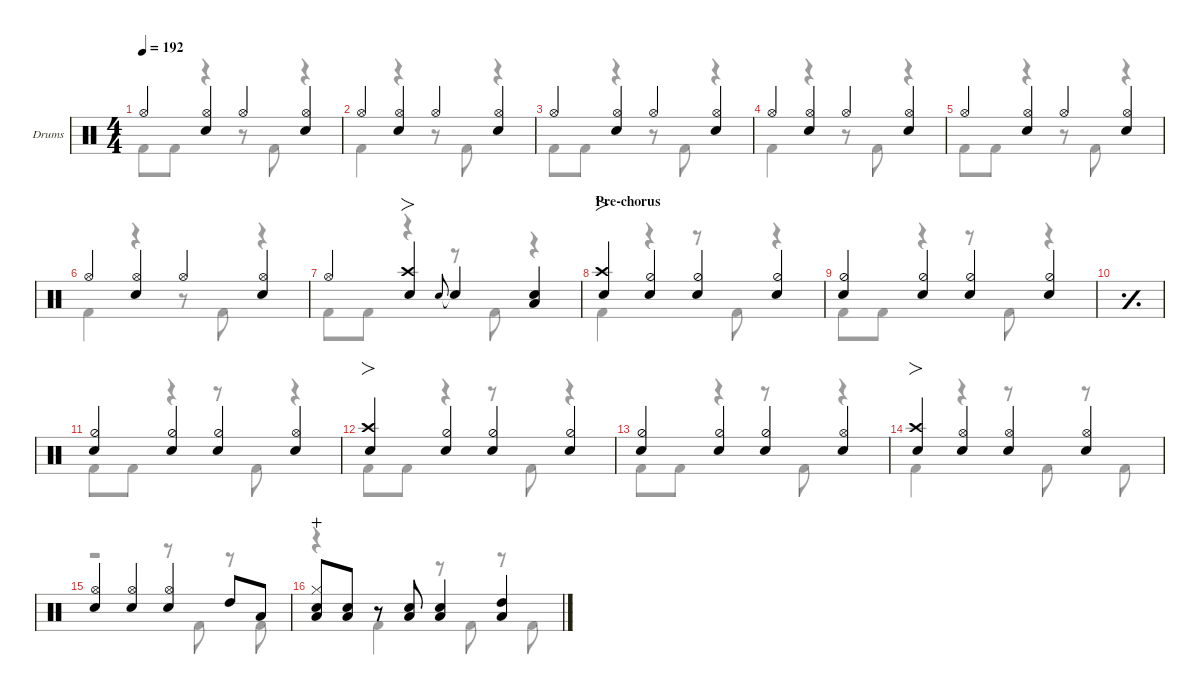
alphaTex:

\defaultSystemsLayout 4
\hideDynamics
\bracketExtendMode nobrackets
\firstSystemTrackNameOrientation horizontal
\track ("Drums" "Drums") {defaultSystemsLayout 4 instrument percussion}
\staff {score}
\articulation defaults
\voice
\ts (4 4)
\tempo 192
\clef neutral
\scale
0.243987
\ks c "Hi-Hat (open)".4{dy f beam Up}
("Hi-Hat (open)" "Snare (hit) 2").4{beam Up} "Hi-Hat (open)".4{beam Up} ("Hi-Hat (open)" "Snare (hit) 2").4{beam Up} |
\scale
0.241618 "Hi-Hat (open)".4{beam Up} ("Hi-Hat (open)" "Snare (hit) 2").4{beam Up} "Hi-Hat (open)".4{beam Up} ("Hi-Hat (open)" "Snare (hit) 2").4{beam Up} |
\scale
0.247776 "Hi-Hat (open)".4{beam Up} ("Hi-Hat (open)" "Snare (hit) 2").4{beam Up} "Hi-Hat (open)".4{beam Up} ("Hi-Hat (open)" "Snare (hit) 2").4{beam Up} |
\scale
0.266618 "Hi-Hat (open)".4{beam Up} ("Hi-Hat (open)" "Snare (hit) 2").4{beam Up} "Hi-Hat (open)".4{beam Up} ("Hi-Hat (open)" "Snare (hit) 2").4{beam Up} |
\scale
0.243987 "Hi-Hat (open)".4{beam Up} ("Hi-Hat (open)" "Snare (hit) 2").4{beam Up} "Hi-Hat (open)".4{beam Up} ("Hi-Hat (open)" "Snare (hit) 2").4{beam Up} |
\scale
0.241618 "Hi-Hat (open)".4{beam Up} ("Hi-Hat (open)" "Snare (hit) 2").4{beam Up} "Hi-Hat (open)".4{beam Up} ("Hi-Hat (open)" "Snare (hit) 2").4{beam Up} |
\scale
0.247776 "Hi-Hat (open)".4{beam Up} ("Crash high (hit)" "Snare (hit) 2").4{fo beam Up} "Snare (hit) 2".8{gr onbeat beam Up} "Snare (hit) 2"{t}.4{beam Up} ("Low Tom (hit)" "Snare (hit) 2").4{beam Up} |
\section ("" "Pre-chorus")
\scale
0.266618 ("Crash high (hit)" "Snare (hit) 2").4{fo beam Up} ("Snare (hit) 2" "Hi-Hat (half)").4{beam Up} ("Hi-Hat (half)" "Snare (hit) 2").4{beam Up} ("Snare (hit) 2" "Hi-Hat (half)").4{beam Up} |
\scale
0.244461 ("Hi-Hat (half)" "Snare (hit) 2").4{beam Up} ("Snare (hit) 2" "Hi-Hat (half)").4{beam Up} ("Hi-Hat (half)" "Snare (hit) 2").4{beam Up} ("Snare (hit) 2" "Hi-Hat (half)").4{beam Up} |
\simile simple
\scale
0.241145 |
\simile none
\scale
0.247776 ("Hi-Hat (half)" "Snare (hit) 2").4{beam Up} ("Snare (hit) 2" "Hi-Hat (half)").4{beam Up} ("Hi-Hat (half)" "Snare (hit) 2").4{beam Up} ("Snare (hit) 2" "Hi-Hat (open)").4{beam Up} |
\scale
0.266618 ("Crash high (hit)" "Snare (hit) 2").4{fo beam Up} ("Snare (hit) 2" "Hi-Hat (half)").4{beam Up} ("Hi-Hat (half)" "Snare (hit) 2").4{beam Up} ("Snare (hit) 2" "Hi-Hat (half)").4{beam Up} |
\scale
0.243987 ("Hi-Hat (half)" "Snare (hit) 2").4{beam Up} ("Snare (hit) 2" "Hi-Hat (half)").4{beam Up} ("Hi-Hat (half)" "Snare (hit) 2").4{beam Up} ("Snare (hit) 2" "Hi-Hat (open)").4{beam Up} |
\scale
0.241618 ("Crash high (hit)" "Snare (hit) 2").4{fo beam Up} ("Snare (hit) 2" "Hi-Hat (open)").4{beam Up} ("Snare (hit) 2" "Hi-Hat (open)").4{beam Up} ("Snare (hit) 2" "Hi-Hat (open)").4{beam Up} |
\scale
0.247776 ("Snare (hit) 2" "Hi-Hat (open)").4{beam Up} ("Snare (hit) 2" "Hi-Hat (open)").4{beam Up} ("Snare (hit) 2" "Hi-Hat (open)").4{beam Up} "High Tom (hit)".8{beam Up} "Low Tom (hit)".8{beam Up} |
\scale
0.511079 ("Hi-Hat (closed)" "Snare (hit) 2" "Low Tom (hit)").8{wahc beam Up} ("Snare (hit) 2" "Low Tom (hit)").8{beam Up} r.8{beam Up} ("Snare (hit) 2" "Low Tom (hit)").8{beam Up} ("Snare (hit) 2" "Low Tom (hit)").4{beam Up} ("Low Tom (hit)" "High Tom (hit)").4{beam Up}
\voice
\clef neutral
\ottava regular
\simile none
\scale
0.243987
\ks c "Kick (hit) 2".8{dy f beam Down} "Kick (hit) 2".8{beam Down}
r.4{beam Down} r.8{beam Down} "Kick (hit) 2".8{beam Down} r.4{beam Down} |
\scale
0.241618 "Kick (hit) 2".4{beam Down} r.4{beam Down} r.8{beam Down} "Kick (hit) 2".8{beam Down} r.4{beam Down} |
\scale
0.247776 "Kick (hit) 2".8{beam Down} "Kick (hit) 2".8{beam Down} r.4{beam Down} r.8{beam Down} "Kick (hit) 2".8{beam Down} r.4{beam Down} |
\scale
0.266618 "Kick (hit) 2".4{beam Down} r.4{beam Down} r.8{beam Down} "Kick (hit) 2".8{beam Down} r.4{beam Down} |
\scale
0.243987 "Kick (hit) 2".8{beam Down} "Kick (hit) 2".8{beam Down} r.4{beam Down} r.8{beam Down} "Kick (hit) 2".8{beam Down} r.4{beam Down} |
\scale
0.241618 "Kick (hit) 2".4{beam Down} r.4{beam Down} r.8{beam Down} "Kick (hit) 2".8{beam Down} r.4{beam Down} |
\scale
0.247776 "Kick (hit) 2".8{beam Down} "Kick (hit) 2".8{beam Down} r.4{beam Down} r.8{beam Down} "Kick (hit) 2".8{beam Down} r.4{beam Down} |
\scale
0.266618 "Kick (hit) 2".4{beam Down} r.4{beam Down} r.8{beam Down} "Kick (hit) 2".8{beam Down} r.4{beam Down} |
\scale
0.244461 "Kick (hit) 2".8{beam Down} "Kick (hit) 2".8{beam Down} r.4{beam Down} r.8{beam Down} "Kick (hit) 2".8{beam Down} r.4{beam Down} |
\simile simple
\scale
0.241145 |
\simile none
\scale
0.247776 "Kick (hit) 2".8{beam Down} "Kick (hit) 2".8{beam Down} r.4{beam Down} r.8{beam Down} "Kick (hit) 2".8{beam Down} r.4{beam Down} |
\scale
0.266618 "Kick (hit) 2".8{beam Down} "Kick (hit) 2".8{beam Down} r.4{beam Down} r.8{beam Down} "Kick (hit) 2".8{beam Down} r.4{beam Down} |
\scale
0.243987 "Kick (hit) 2".8{beam Down} "Kick (hit) 2".8{beam Down} r.4{beam Down} r.8{beam Down} "Kick (hit) 2".8{beam Down} r.4{beam Down} |
\scale
0.241618 "Kick (hit) 2".4{beam Down} r.4{beam Down} r.8{beam Down} "Kick (hit) 2".8{beam Down} r.8{beam Down} "Kick (hit) 2".8{beam Down} |
\scale
0.247776 r.2{beam Down} r.8{beam Down} "Kick (hit) 2".8{beam Down} r.8{beam Down} "Kick (hit) 2".8{beam Down} |
\scale
0.511079 r.4{beam Down} "Kick (hit) 2".4{beam Down} r.8{beam Down} "Kick (hit) 2".8{beam Down} r.8{beam Down} "Kick (hit) 2".8{beam Down}
